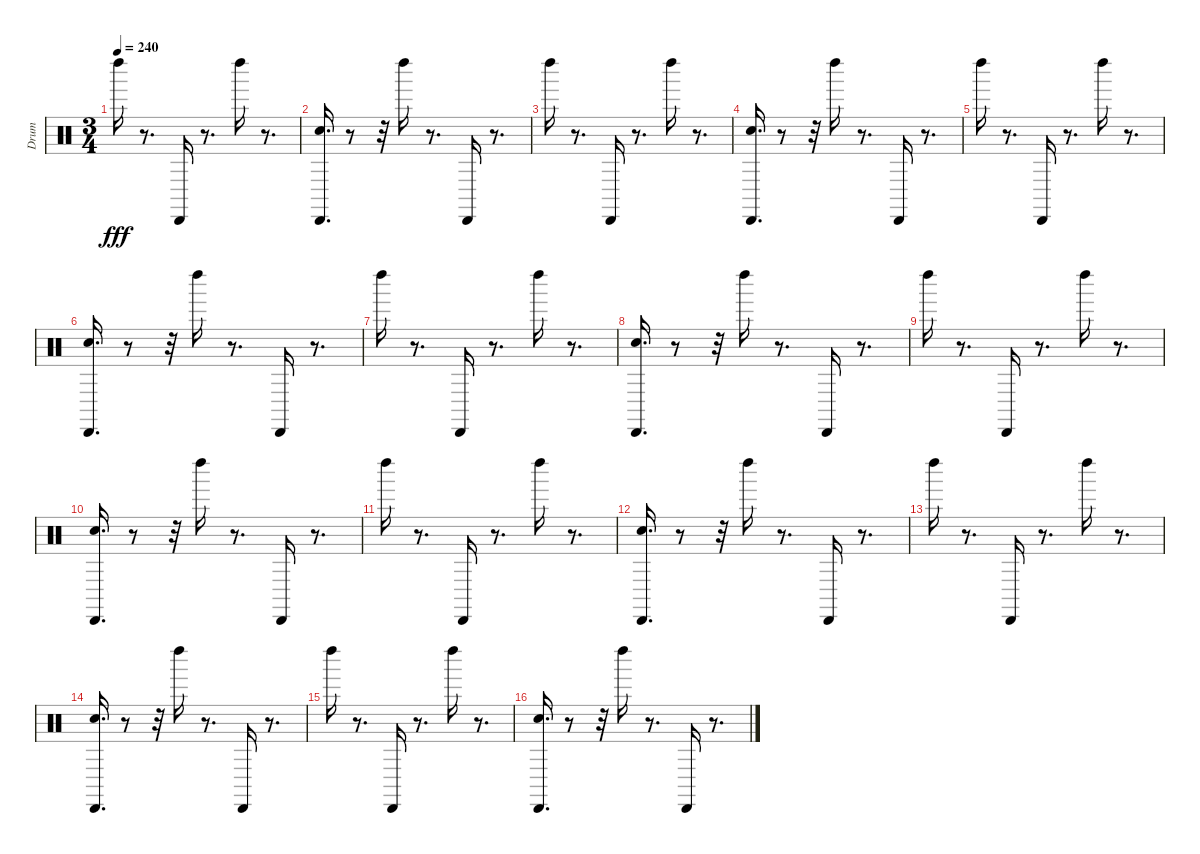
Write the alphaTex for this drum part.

\track ("Drum" "Drum") {instrument percussion}
\staff {score}
\articulation defaults
\ts (3 4)
\tempo 240
\clef neutral
\ks c "Left Maraca (hit)".16{dy fff}
r.8{d} "Cabasa (hit)".16 r.8{d} "Left Maraca (hit)".16 r.8{d} |
("Cabasa (hit)" "Electric Snare (hit)").16{d} r.8 r.32 "Left Maraca (hit)".16 r.8{d} "Cabasa (hit)".16 r.8{d} |
"Left Maraca (hit)".16 r.8{d} "Cabasa (hit)".16 r.8{d} "Left Maraca (hit)".16 r.8{d} |
("Cabasa (hit)" "Electric Snare (hit)").16{d} r.8 r.32 "Left Maraca (hit)".16 r.8{d} "Cabasa (hit)".16 r.8{d} |
"Left Maraca (hit)".16 r.8{d} "Cabasa (hit)".16 r.8{d} "Left Maraca (hit)".16 r.8{d} |
("Cabasa (hit)" "Electric Snare (hit)").16{d} r.8 r.32 "Left Maraca (hit)".16 r.8{d} "Cabasa (hit)".16 r.8{d} |
"Left Maraca (hit)".16 r.8{d} "Cabasa (hit)".16 r.8{d} "Left Maraca (hit)".16 r.8{d} |
("Cabasa (hit)" "Electric Snare (hit)").16{d} r.8 r.32 "Left Maraca (hit)".16 r.8{d} "Cabasa (hit)".16 r.8{d} |
"Left Maraca (hit)".16 r.8{d} "Cabasa (hit)".16 r.8{d} "Left Maraca (hit)".16 r.8{d} |
("Cabasa (hit)" "Electric Snare (hit)").16{d} r.8 r.32 "Left Maraca (hit)".16 r.8{d} "Cabasa (hit)".16 r.8{d} |
"Left Maraca (hit)".16 r.8{d} "Cabasa (hit)".16 r.8{d} "Left Maraca (hit)".16 r.8{d} |
("Cabasa (hit)" "Electric Snare (hit)").16{d} r.8 r.32 "Left Maraca (hit)".16 r.8{d} "Cabasa (hit)".16 r.8{d} |
"Left Maraca (hit)".16 r.8{d} "Cabasa (hit)".16 r.8{d} "Left Maraca (hit)".16 r.8{d} |
("Cabasa (hit)" "Electric Snare (hit)").16{d} r.8 r.32 "Left Maraca (hit)".16 r.8{d} "Cabasa (hit)".16 r.8{d} |
"Left Maraca (hit)".16 r.8{d} "Cabasa (hit)".16 r.8{d} "Left Maraca (hit)".16 r.8{d} |
("Cabasa (hit)" "Electric Snare (hit)").16{d} r.8 r.32 "Left Maraca (hit)".16 r.8{d} "Cabasa (hit)".16 r.8{d}
